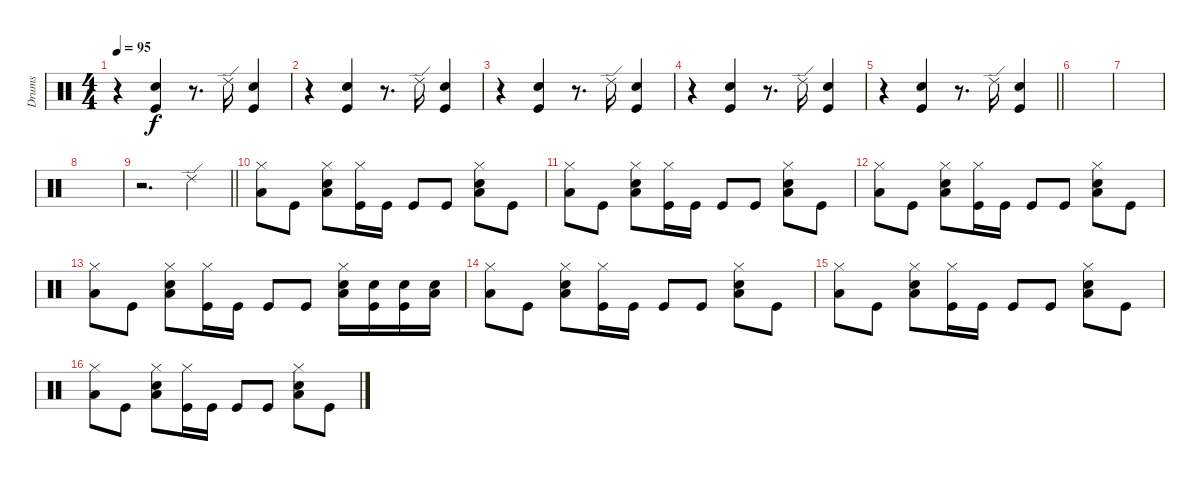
\track ("Drums" "Drums") {instrument percussion}
\staff {score}
\articulation defaults
\ts (4 4)
\tempo 95
\clef neutral
\ks c
r.4{dy f} ("Kick (hit)" "Snare (hit) 2").4 r.8{d} "Ride (edge) 2".16 ("Kick (hit)" "Snare (hit) 2").4 |
r.4 ("Kick (hit)" "Snare (hit) 2").4 r.8{d} "Ride (edge) 2".16 ("Kick (hit)" "Snare (hit) 2").4 |
r.4 ("Kick (hit)" "Snare (hit) 2").4 r.8{d} "Ride (edge) 2".16 ("Kick (hit)" "Snare (hit) 2").4 |
r.4 ("Kick (hit)" "Snare (hit) 2").4 r.8{d} "Ride (edge) 2".16 ("Kick (hit)" "Snare (hit) 2").4 |
\barLineRight lightlight
r.4 ("Kick (hit)" "Snare (hit) 2").4 r.8{d} "Ride (edge) 2".16 ("Kick (hit)" "Snare (hit) 2").4 |
|
|
|
\barLineRight lightlight
r.2{d} "Ride (edge) 2".4 |
("Low Floor Tom (hit)" "Hi-Hat (closed)").8 "Kick (hit)".8 ("Low Floor Tom (hit)" "Snare (hit) 2" "Hi-Hat (closed)").8 ("Kick (hit)" "Hi-Hat (closed)").16 "Kick (hit)".16 "Kick (hit)".8 "Kick (hit)".8 ("Low Floor Tom (hit)" "Snare (hit) 2" "Hi-Hat (closed)").8 "Kick (hit)".8 |
("Low Floor Tom (hit)" "Hi-Hat (closed)").8 "Kick (hit)".8 ("Low Floor Tom (hit)" "Snare (hit) 2" "Hi-Hat (closed)").8 ("Kick (hit)" "Hi-Hat (closed)").16 "Kick (hit)".16 "Kick (hit)".8 "Kick (hit)".8 ("Low Floor Tom (hit)" "Snare (hit) 2" "Hi-Hat (closed)").8 "Kick (hit)".8 |
("Low Floor Tom (hit)" "Hi-Hat (closed)").8 "Kick (hit)".8 ("Low Floor Tom (hit)" "Snare (hit) 2" "Hi-Hat (closed)").8 ("Kick (hit)" "Hi-Hat (closed)").16 "Kick (hit)".16 "Kick (hit)".8 "Kick (hit)".8 ("Low Floor Tom (hit)" "Snare (hit) 2" "Hi-Hat (closed)").8 "Kick (hit)".8 |
("Low Floor Tom (hit)" "Hi-Hat (closed)").8 "Kick (hit)".8 ("Low Floor Tom (hit)" "Snare (hit) 2" "Hi-Hat (closed)").8 ("Kick (hit)" "Hi-Hat (closed)").16 "Kick (hit)".16 "Kick (hit)".8 "Kick (hit)".8 ("Low Floor Tom (hit)" "Snare (hit) 2" "Hi-Hat (closed)").16 ("Kick (hit)" "Snare (hit) 2").16 ("Kick (hit)" "Snare (hit) 2").16 ("Low Floor Tom (hit)" "Snare (hit) 2").16 |
("Low Floor Tom (hit)" "Hi-Hat (closed)").8 "Kick (hit)".8 ("Low Floor Tom (hit)" "Snare (hit) 2" "Hi-Hat (closed)").8 ("Kick (hit)" "Hi-Hat (closed)").16 "Kick (hit)".16 "Kick (hit)".8 "Kick (hit)".8 ("Low Floor Tom (hit)" "Snare (hit) 2" "Hi-Hat (closed)").8 "Kick (hit)".8 |
("Low Floor Tom (hit)" "Hi-Hat (closed)").8 "Kick (hit)".8 ("Low Floor Tom (hit)" "Snare (hit) 2" "Hi-Hat (closed)").8 ("Kick (hit)" "Hi-Hat (closed)").16 "Kick (hit)".16 "Kick (hit)".8 "Kick (hit)".8 ("Low Floor Tom (hit)" "Snare (hit) 2" "Hi-Hat (closed)").8 "Kick (hit)".8 |
("Low Floor Tom (hit)" "Hi-Hat (closed)").8 "Kick (hit)".8 ("Low Floor Tom (hit)" "Snare (hit) 2" "Hi-Hat (closed)").8 ("Kick (hit)" "Hi-Hat (closed)").16 "Kick (hit)".16 "Kick (hit)".8 "Kick (hit)".8 ("Low Floor Tom (hit)" "Snare (hit) 2" "Hi-Hat (closed)").8 "Kick (hit)".8
